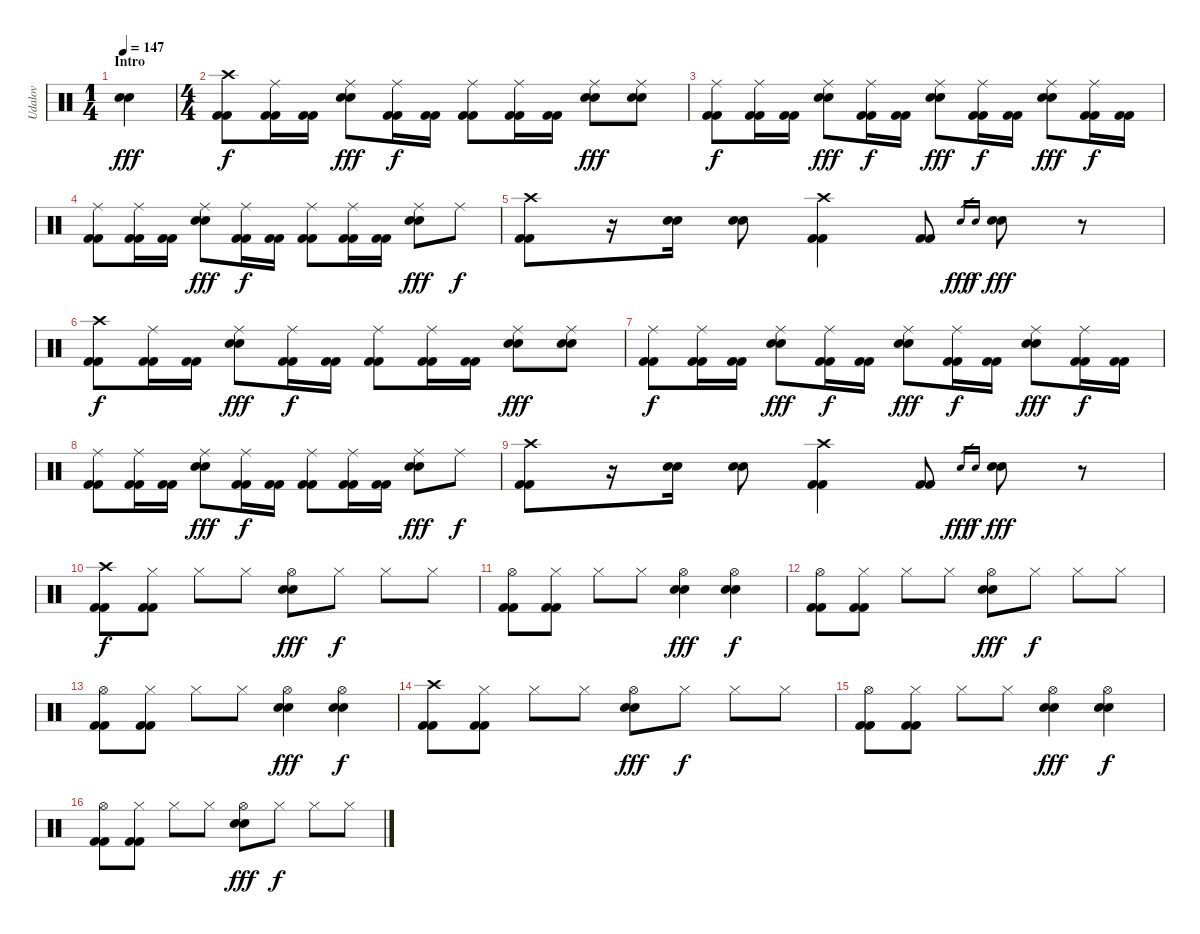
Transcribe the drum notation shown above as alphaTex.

\track ("Udalov" "Udalov") {instrument percussion}
\staff {score}
\articulation defaults
\ts (1 4)
\section ("" "Intro")
\tempo 147
\clef neutral
\ks c
("Electric Snare (hit)" "Electric Snare (hit)").4{dy fff} |
\ts (4 4)
("Crash high (hit)" "Kick (hit) 2" "Kick (hit) 2").8{dy f} ("Ride (middle)" "Kick (hit) 2" "Kick (hit) 2").16 ("Kick (hit) 2" "Kick (hit) 2").16 ("Ride (middle)" "Electric Snare (hit)" "Electric Snare (hit)").8{dy fff} ("Ride (middle)" "Kick (hit) 2" "Kick (hit) 2").16{dy f} ("Kick (hit) 2" "Kick (hit) 2").16 ("Ride (middle)" "Kick (hit) 2" "Kick (hit) 2").8 ("Ride (middle)" "Kick (hit) 2" "Kick (hit) 2").16 ("Kick (hit) 2" "Kick (hit) 2").16 ("Ride (middle)" "Electric Snare (hit)" "Electric Snare (hit)").8{dy fff} ("Ride (middle)" "Electric Snare (hit)" "Electric Snare (hit)").8 |
("Ride (middle)" "Kick (hit) 2" "Kick (hit) 2").8{dy f} ("Ride (middle)" "Kick (hit) 2" "Kick (hit) 2").16 ("Kick (hit) 2" "Kick (hit) 2").16 ("Ride (middle)" "Electric Snare (hit)" "Electric Snare (hit)").8{dy fff} ("Ride (middle)" "Kick (hit) 2" "Kick (hit) 2").16{dy f} ("Kick (hit) 2" "Kick (hit) 2").16 ("Ride (middle)" "Electric Snare (hit)" "Electric Snare (hit)").8{dy fff} ("Ride (middle)" "Kick (hit) 2" "Kick (hit) 2").16{dy f} ("Kick (hit) 2" "Kick (hit) 2").16 ("Ride (middle)" "Electric Snare (hit)" "Electric Snare (hit)").8{dy fff} ("Ride (middle)" "Kick (hit) 2" "Kick (hit) 2").16{dy f} ("Kick (hit) 2" "Kick (hit) 2").16 |
("Ride (middle)" "Kick (hit) 2" "Kick (hit) 2").8 ("Ride (middle)" "Kick (hit) 2" "Kick (hit) 2").16 ("Kick (hit) 2" "Kick (hit) 2").16 ("Ride (middle)" "Electric Snare (hit)" "Electric Snare (hit)").8{dy fff} ("Ride (middle)" "Kick (hit) 2" "Kick (hit) 2").16{dy f} ("Kick (hit) 2" "Kick (hit) 2").16 ("Ride (middle)" "Kick (hit) 2" "Kick (hit) 2").8 ("Ride (middle)" "Kick (hit) 2" "Kick (hit) 2").16 ("Kick (hit) 2" "Kick (hit) 2").16 ("Ride (middle)" "Electric Snare (hit)" "Electric Snare (hit)").8{dy fff} "Ride (middle)".8{dy f} |
("Crash high (hit)" "Kick (hit) 2" "Kick (hit) 2").8 r.16 ("Electric Snare (hit)" "Electric Snare (hit)").16 ("Electric Snare (hit)" "Electric Snare (hit)").8 ("Crash high (hit)" "Kick (hit) 2" "Kick (hit) 2").4 ("Kick (hit) 2" "Kick (hit) 2").8 "Electric Snare (hit)".16{gr dy fff} "Electric Snare (hit)".16{gr dy f} ("Electric Snare (hit)" "Electric Snare (hit)").8{dy fff} r.8 |
("Crash high (hit)" "Kick (hit) 2" "Kick (hit) 2").8{dy f} ("Ride (middle)" "Kick (hit) 2" "Kick (hit) 2").16 ("Kick (hit) 2" "Kick (hit) 2").16 ("Ride (middle)" "Electric Snare (hit)" "Electric Snare (hit)").8{dy fff} ("Ride (middle)" "Kick (hit) 2" "Kick (hit) 2").16{dy f} ("Kick (hit) 2" "Kick (hit) 2").16 ("Ride (middle)" "Kick (hit) 2" "Kick (hit) 2").8 ("Ride (middle)" "Kick (hit) 2" "Kick (hit) 2").16 ("Kick (hit) 2" "Kick (hit) 2").16 ("Ride (middle)" "Electric Snare (hit)" "Electric Snare (hit)").8{dy fff} ("Ride (middle)" "Electric Snare (hit)" "Electric Snare (hit)").8 |
("Ride (middle)" "Kick (hit) 2" "Kick (hit) 2").8{dy f} ("Ride (middle)" "Kick (hit) 2" "Kick (hit) 2").16 ("Kick (hit) 2" "Kick (hit) 2").16 ("Ride (middle)" "Electric Snare (hit)" "Electric Snare (hit)").8{dy fff} ("Ride (middle)" "Kick (hit) 2" "Kick (hit) 2").16{dy f} ("Kick (hit) 2" "Kick (hit) 2").16 ("Ride (middle)" "Electric Snare (hit)" "Electric Snare (hit)").8{dy fff} ("Ride (middle)" "Kick (hit) 2" "Kick (hit) 2").16{dy f} ("Kick (hit) 2" "Kick (hit) 2").16 ("Ride (middle)" "Electric Snare (hit)" "Electric Snare (hit)").8{dy fff} ("Ride (middle)" "Kick (hit) 2" "Kick (hit) 2").16{dy f} ("Kick (hit) 2" "Kick (hit) 2").16 |
("Ride (middle)" "Kick (hit) 2" "Kick (hit) 2").8 ("Ride (middle)" "Kick (hit) 2" "Kick (hit) 2").16 ("Kick (hit) 2" "Kick (hit) 2").16 ("Ride (middle)" "Electric Snare (hit)" "Electric Snare (hit)").8{dy fff} ("Ride (middle)" "Kick (hit) 2" "Kick (hit) 2").16{dy f} ("Kick (hit) 2" "Kick (hit) 2").16 ("Ride (middle)" "Kick (hit) 2" "Kick (hit) 2").8 ("Ride (middle)" "Kick (hit) 2" "Kick (hit) 2").16 ("Kick (hit) 2" "Kick (hit) 2").16 ("Ride (middle)" "Electric Snare (hit)" "Electric Snare (hit)").8{dy fff} "Ride (middle)".8{dy f} |
("Crash high (hit)" "Kick (hit) 2" "Kick (hit) 2").8 r.16 ("Electric Snare (hit)" "Electric Snare (hit)").16 ("Electric Snare (hit)" "Electric Snare (hit)").8 ("Crash high (hit)" "Kick (hit) 2" "Kick (hit) 2").4 ("Kick (hit) 2" "Kick (hit) 2").8 "Electric Snare (hit)".16{gr dy fff} "Electric Snare (hit)".16{gr dy f} ("Electric Snare (hit)" "Electric Snare (hit)").8{dy fff} r.8 |
("Crash high (hit)" "Kick (hit) 2" "Kick (hit) 2").8{dy f} ("Hi-Hat (closed)" "Kick (hit) 2" "Kick (hit) 2").8 "Hi-Hat (closed)".8 "Hi-Hat (closed)".8 ("Hi-Hat (open)" "Electric Snare (hit)" "Electric Snare (hit)").8{dy fff} "Hi-Hat (closed)".8{dy f} "Hi-Hat (closed)".8 "Hi-Hat (closed)".8 |
("Hi-Hat (open)" "Kick (hit) 2" "Kick (hit) 2").8 ("Hi-Hat (closed)" "Kick (hit) 2" "Kick (hit) 2").8 "Hi-Hat (closed)".8 "Hi-Hat (closed)".8 ("Hi-Hat (open)" "Electric Snare (hit)" "Electric Snare (hit)").4{dy fff} ("Hi-Hat (open)" "Electric Snare (hit)" "Electric Snare (hit)").4{dy f} |
("Hi-Hat (open)" "Kick (hit) 2" "Kick (hit) 2").8 ("Hi-Hat (closed)" "Kick (hit) 2" "Kick (hit) 2").8 "Hi-Hat (closed)".8 "Hi-Hat (closed)".8 ("Hi-Hat (open)" "Electric Snare (hit)" "Electric Snare (hit)").8{dy fff} "Hi-Hat (closed)".8{dy f} "Hi-Hat (closed)".8 "Hi-Hat (closed)".8 |
("Hi-Hat (open)" "Kick (hit) 2" "Kick (hit) 2").8 ("Hi-Hat (closed)" "Kick (hit) 2" "Kick (hit) 2").8 "Hi-Hat (closed)".8 "Hi-Hat (closed)".8 ("Hi-Hat (open)" "Electric Snare (hit)" "Electric Snare (hit)").4{dy fff} ("Hi-Hat (open)" "Electric Snare (hit)" "Electric Snare (hit)").4{dy f} |
("Crash high (hit)" "Kick (hit) 2" "Kick (hit) 2").8 ("Hi-Hat (closed)" "Kick (hit) 2" "Kick (hit) 2").8 "Hi-Hat (closed)".8 "Hi-Hat (closed)".8 ("Hi-Hat (open)" "Electric Snare (hit)" "Electric Snare (hit)").8{dy fff} "Hi-Hat (closed)".8{dy f} "Hi-Hat (closed)".8 "Hi-Hat (closed)".8 |
("Hi-Hat (open)" "Kick (hit) 2" "Kick (hit) 2").8 ("Hi-Hat (closed)" "Kick (hit) 2" "Kick (hit) 2").8 "Hi-Hat (closed)".8 "Hi-Hat (closed)".8 ("Hi-Hat (open)" "Electric Snare (hit)" "Electric Snare (hit)").4{dy fff} ("Hi-Hat (open)" "Electric Snare (hit)" "Electric Snare (hit)").4{dy f} |
("Hi-Hat (open)" "Kick (hit) 2" "Kick (hit) 2").8 ("Hi-Hat (closed)" "Kick (hit) 2" "Kick (hit) 2").8 "Hi-Hat (closed)".8 "Hi-Hat (closed)".8 ("Hi-Hat (open)" "Electric Snare (hit)" "Electric Snare (hit)").8{dy fff} "Hi-Hat (closed)".8{dy f} "Hi-Hat (closed)".8 "Hi-Hat (closed)".8
